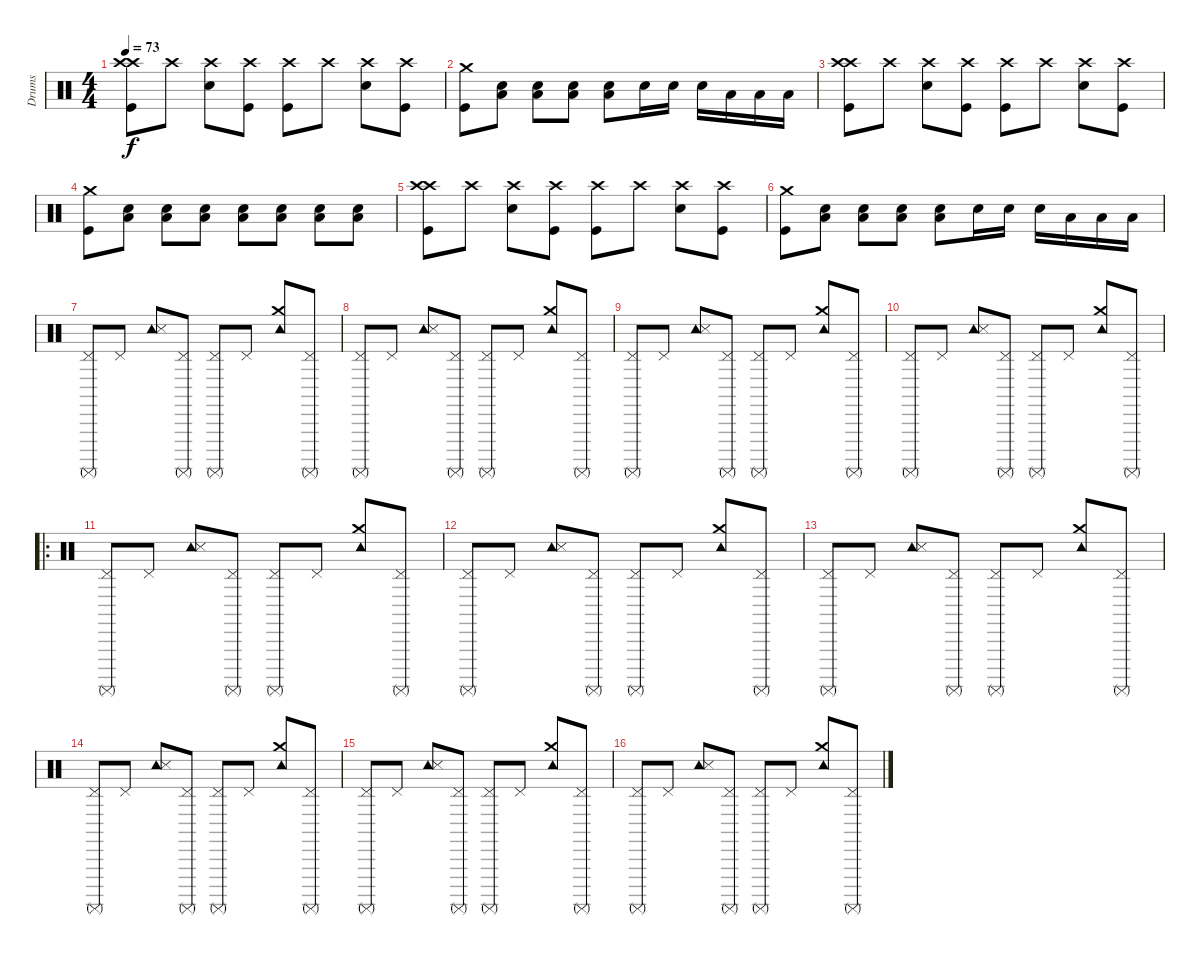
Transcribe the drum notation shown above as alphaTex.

\track ("Drums" "Drums") {instrument percussion}
\staff {score}
\articulation defaults
\ts (4 4)
\tempo 73
\clef neutral
\ks c
("Crash high (hit)" "Crash high (hit)" "Kick (hit)").8{dy f} "Crash high (hit)".8 ("Crash high (hit)" "Electric Snare (hit)").8 ("Crash high (hit)" "Kick (hit)").8 ("Crash high (hit)" "Kick (hit)").8 "Crash high (hit)".8 ("Crash high (hit)" "Electric Snare (hit)").8 ("Crash high (hit)" "Kick (hit)").8 |
("Crash medium (hit)" "Kick (hit)").8 ("Low Floor Tom (hit)" "Electric Snare (hit)").8 ("Low Floor Tom (hit)" "Electric Snare (hit)").8 ("Low Floor Tom (hit)" "Electric Snare (hit)").8 ("Low Floor Tom (hit)" "Electric Snare (hit)").8 "Electric Snare (hit)".16 "Electric Snare (hit)".16 "Electric Snare (hit)".16 "Low Tom (hit)".16 "Low Tom (hit)".16 "Low Tom (hit)".16 |
("Crash high (hit)" "Crash high (hit)" "Kick (hit)").8 "Crash high (hit)".8 ("Crash high (hit)" "Electric Snare (hit)").8 ("Crash high (hit)" "Kick (hit)").8 ("Crash high (hit)" "Kick (hit)").8 "Crash high (hit)".8 ("Crash high (hit)" "Electric Snare (hit)").8 ("Crash high (hit)" "Kick (hit)").8 |
("Crash medium (hit)" "Kick (hit)").8 ("Low Floor Tom (hit)" "Electric Snare (hit)").8 ("Low Floor Tom (hit)" "Electric Snare (hit)").8 ("Low Floor Tom (hit)" "Electric Snare (hit)").8 ("Low Floor Tom (hit)" "Electric Snare (hit)").8 ("Low Floor Tom (hit)" "Electric Snare (hit)").8 ("Low Floor Tom (hit)" "Electric Snare (hit)").8 ("Low Floor Tom (hit)" "Electric Snare (hit)").8 |
("Crash high (hit)" "Crash high (hit)" "Kick (hit)").8 "Crash high (hit)".8 ("Crash high (hit)" "Electric Snare (hit)").8 ("Crash high (hit)" "Kick (hit)").8 ("Crash high (hit)" "Kick (hit)").8 "Crash high (hit)".8 ("Crash high (hit)" "Electric Snare (hit)").8 ("Crash high (hit)" "Kick (hit)").8 |
("Crash medium (hit)" "Kick (hit)").8 ("Low Floor Tom (hit)" "Electric Snare (hit)").8 ("Low Floor Tom (hit)" "Electric Snare (hit)").8 ("Low Floor Tom (hit)" "Electric Snare (hit)").8 ("Low Floor Tom (hit)" "Electric Snare (hit)").8 "Electric Snare (hit)".16 "Electric Snare (hit)".16 "Electric Snare (hit)".16 "Low Tom (hit)".16 "Low Tom (hit)".16 "Low Tom (hit)".16 |
("Pedal Hi-Hat (hit)" "Surdo (mute)").8 "Pedal Hi-Hat (hit)".8 ("Tambourine (hit)" "Snare (side stick) 3").8 ("Pedal Hi-Hat (hit)" "Surdo (mute)").8 ("Pedal Hi-Hat (hit)" "Surdo (mute)").8 "Pedal Hi-Hat (hit)".8 ("Tambourine (hit)" "Crash medium (hit)").8 ("Pedal Hi-Hat (hit)" "Surdo (mute)").8 |
("Pedal Hi-Hat (hit)" "Surdo (mute)").8 "Pedal Hi-Hat (hit)".8 ("Tambourine (hit)" "Snare (side stick) 3").8 ("Pedal Hi-Hat (hit)" "Surdo (mute)").8 ("Pedal Hi-Hat (hit)" "Surdo (mute)").8 "Pedal Hi-Hat (hit)".8 ("Tambourine (hit)" "Crash medium (hit)").8 ("Pedal Hi-Hat (hit)" "Surdo (mute)").8 |
("Pedal Hi-Hat (hit)" "Surdo (mute)").8 "Pedal Hi-Hat (hit)".8 ("Tambourine (hit)" "Snare (side stick) 3").8 ("Pedal Hi-Hat (hit)" "Surdo (mute)").8 ("Pedal Hi-Hat (hit)" "Surdo (mute)").8 "Pedal Hi-Hat (hit)".8 ("Tambourine (hit)" "Crash medium (hit)").8 ("Pedal Hi-Hat (hit)" "Surdo (mute)").8 |
("Pedal Hi-Hat (hit)" "Surdo (mute)").8 "Pedal Hi-Hat (hit)".8 ("Tambourine (hit)" "Snare (side stick) 3").8 ("Pedal Hi-Hat (hit)" "Surdo (mute)").8 ("Pedal Hi-Hat (hit)" "Surdo (mute)").8 "Pedal Hi-Hat (hit)".8 ("Tambourine (hit)" "Crash medium (hit)").8 ("Pedal Hi-Hat (hit)" "Surdo (mute)").8 |
\ro
("Pedal Hi-Hat (hit)" "Surdo (mute)").8 "Pedal Hi-Hat (hit)".8 ("Tambourine (hit)" "Snare (side stick) 3").8 ("Pedal Hi-Hat (hit)" "Surdo (mute)").8 ("Pedal Hi-Hat (hit)" "Surdo (mute)").8 "Pedal Hi-Hat (hit)".8 ("Tambourine (hit)" "Crash medium (hit)").8 ("Pedal Hi-Hat (hit)" "Surdo (mute)").8 |
("Pedal Hi-Hat (hit)" "Surdo (mute)").8 "Pedal Hi-Hat (hit)".8 ("Tambourine (hit)" "Snare (side stick) 3").8 ("Pedal Hi-Hat (hit)" "Surdo (mute)").8 ("Pedal Hi-Hat (hit)" "Surdo (mute)").8 "Pedal Hi-Hat (hit)".8 ("Tambourine (hit)" "Crash medium (hit)").8 ("Pedal Hi-Hat (hit)" "Surdo (mute)").8 |
("Pedal Hi-Hat (hit)" "Surdo (mute)").8 "Pedal Hi-Hat (hit)".8 ("Tambourine (hit)" "Snare (side stick) 3").8 ("Pedal Hi-Hat (hit)" "Surdo (mute)").8 ("Pedal Hi-Hat (hit)" "Surdo (mute)").8 "Pedal Hi-Hat (hit)".8 ("Tambourine (hit)" "Crash medium (hit)").8 ("Pedal Hi-Hat (hit)" "Surdo (mute)").8 |
("Pedal Hi-Hat (hit)" "Surdo (mute)").8 "Pedal Hi-Hat (hit)".8 ("Tambourine (hit)" "Snare (side stick) 3").8 ("Pedal Hi-Hat (hit)" "Surdo (mute)").8 ("Pedal Hi-Hat (hit)" "Surdo (mute)").8 "Pedal Hi-Hat (hit)".8 ("Tambourine (hit)" "Crash medium (hit)").8 ("Pedal Hi-Hat (hit)" "Surdo (mute)").8 |
("Pedal Hi-Hat (hit)" "Surdo (mute)").8 "Pedal Hi-Hat (hit)".8 ("Tambourine (hit)" "Snare (side stick) 3").8 ("Pedal Hi-Hat (hit)" "Surdo (mute)").8 ("Pedal Hi-Hat (hit)" "Surdo (mute)").8 "Pedal Hi-Hat (hit)".8 ("Tambourine (hit)" "Crash medium (hit)").8 ("Pedal Hi-Hat (hit)" "Surdo (mute)").8 |
("Pedal Hi-Hat (hit)" "Surdo (mute)").8 "Pedal Hi-Hat (hit)".8 ("Tambourine (hit)" "Snare (side stick) 3").8 ("Pedal Hi-Hat (hit)" "Surdo (mute)").8 ("Pedal Hi-Hat (hit)" "Surdo (mute)").8 "Pedal Hi-Hat (hit)".8 ("Tambourine (hit)" "Crash medium (hit)").8 ("Pedal Hi-Hat (hit)" "Surdo (mute)").8
